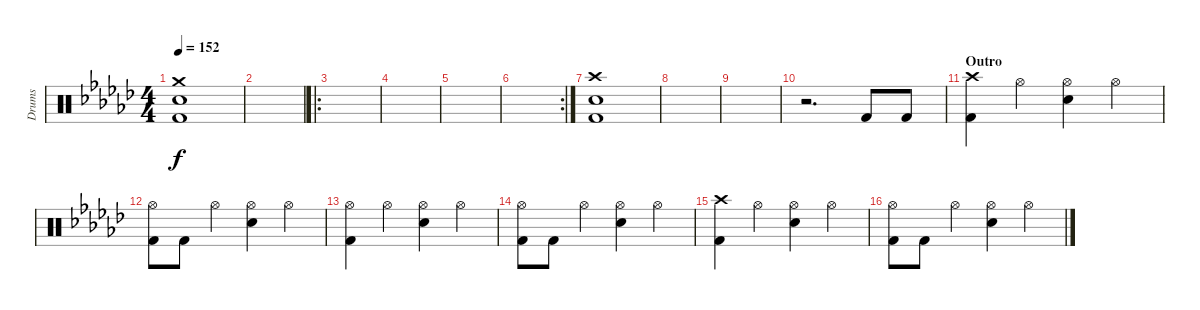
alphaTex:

\track ("Drums" "Drums") {instrument percussion}
\staff {score}
\articulation defaults
\ts (4 4)
\tempo 152
\clef neutral
\ks gb
("Crash medium (hit)" "Electric Snare (hit)" "Kick (hit) 2").1{dy f} |
|
\ro
|
|
|
\rc 2
|
("Crash high (hit)" "Electric Snare (hit)" "Kick (hit) 2").1 |
|
|
r.2{d} "Kick (hit) 2".8 "Kick (hit) 2".8 |
\section ("" "Outro")
("Crash high (hit)" "Kick (hit) 2").4 "Hi-Hat (open)".4 ("Hi-Hat (open)" "Electric Snare (hit)").4 "Hi-Hat (open)".4 |
("Hi-Hat (open)" "Kick (hit) 2").8 "Kick (hit) 2".8 "Hi-Hat (open)".4 ("Hi-Hat (open)" "Electric Snare (hit)").4 "Hi-Hat (open)".4 |
("Hi-Hat (open)" "Kick (hit) 2").4 "Hi-Hat (open)".4 ("Hi-Hat (open)" "Electric Snare (hit)").4 "Hi-Hat (open)".4 |
("Hi-Hat (open)" "Kick (hit) 2").8 "Kick (hit) 2".8 "Hi-Hat (open)".4 ("Hi-Hat (open)" "Electric Snare (hit)").4 "Hi-Hat (open)".4 |
("Crash high (hit)" "Kick (hit) 2").4 "Hi-Hat (open)".4 ("Hi-Hat (open)" "Electric Snare (hit)").4 "Hi-Hat (open)".4 |
("Hi-Hat (open)" "Kick (hit) 2").8 "Kick (hit) 2".8 "Hi-Hat (open)".4 ("Hi-Hat (open)" "Electric Snare (hit)").4 "Hi-Hat (open)".4
